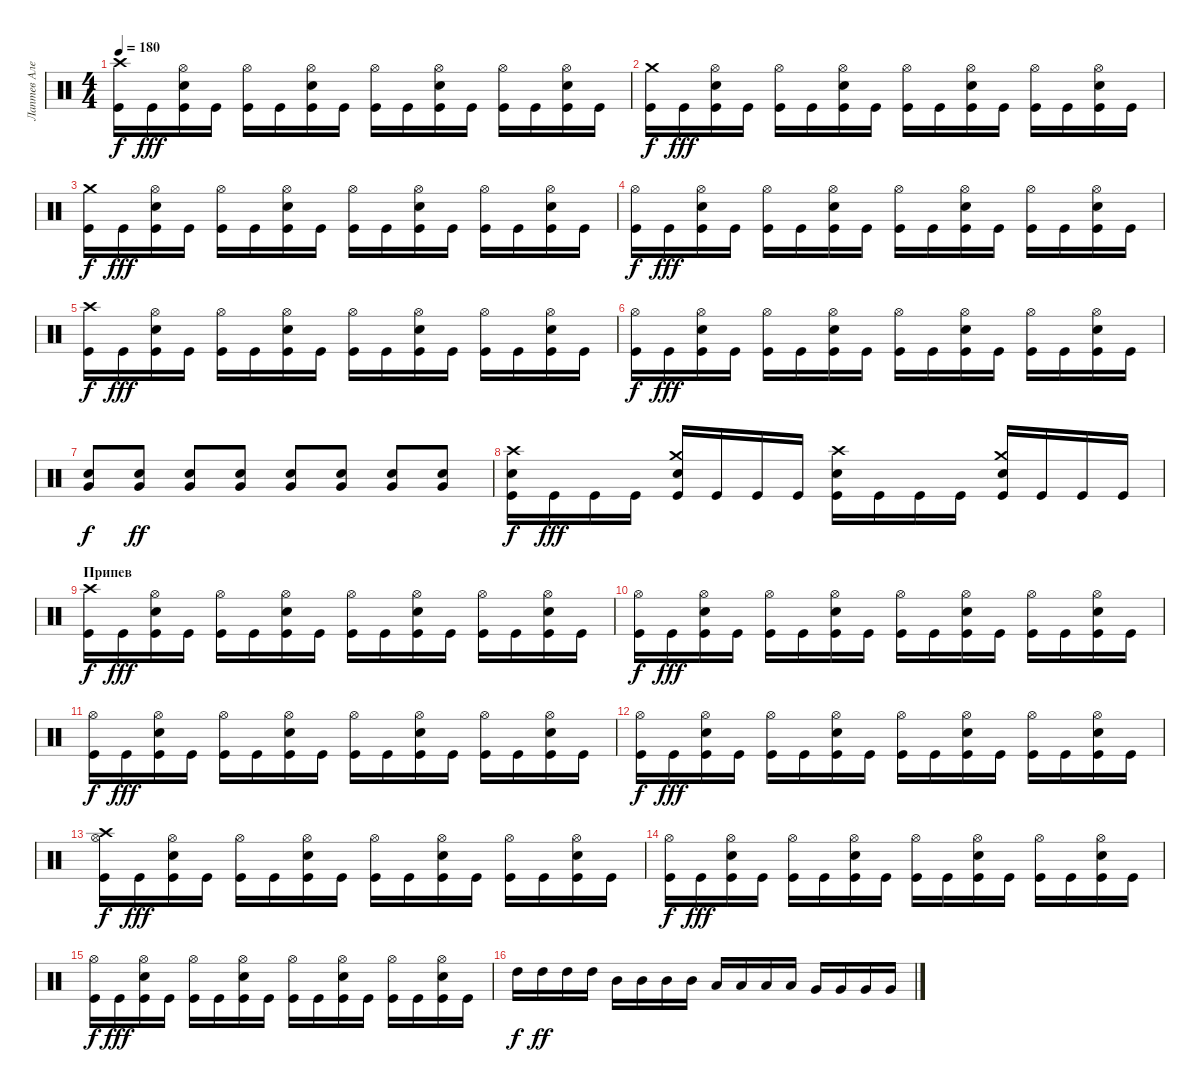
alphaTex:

\track ("Лаптев Алексей" "Лаптев Але") {instrument percussion}
\staff {score}
\articulation defaults
\ts (4 4)
\tempo 180
\clef neutral
\ks c
("Crash high (hit)" "Kick (hit)").16{dy f} "Kick (hit)".16{dy fff} ("Hi-Hat (open)" "Snare (hit) 2" "Kick (hit)").16 "Kick (hit)".16 ("Hi-Hat (open)" "Kick (hit)").16 "Kick (hit)".16 ("Snare (hit) 2" "Hi-Hat (open)" "Kick (hit)").16 "Kick (hit)".16 ("Hi-Hat (open)" "Kick (hit)").16 "Kick (hit)".16 ("Hi-Hat (open)" "Snare (hit) 2" "Kick (hit)").16 "Kick (hit)".16 ("Hi-Hat (open)" "Kick (hit)").16 "Kick (hit)".16 ("Hi-Hat (open)" "Snare (hit) 2" "Kick (hit)").16 "Kick (hit)".16 |
("Crash medium (hit)" "Kick (hit)").16{dy f} "Kick (hit)".16{dy fff} ("Hi-Hat (open)" "Snare (hit) 2" "Kick (hit)").16 "Kick (hit)".16 ("Hi-Hat (open)" "Kick (hit)").16 "Kick (hit)".16 ("Snare (hit) 2" "Hi-Hat (open)" "Kick (hit)").16 "Kick (hit)".16 ("Hi-Hat (open)" "Kick (hit)").16 "Kick (hit)".16 ("Hi-Hat (open)" "Snare (hit) 2" "Kick (hit)").16 "Kick (hit)".16 ("Hi-Hat (open)" "Kick (hit)").16 "Kick (hit)".16 ("Hi-Hat (open)" "Snare (hit) 2" "Kick (hit)").16 "Kick (hit)".16 |
("Crash medium (hit)" "Kick (hit)").16{dy f} "Kick (hit)".16{dy fff} ("Hi-Hat (open)" "Snare (hit) 2" "Kick (hit)").16 "Kick (hit)".16 ("Hi-Hat (open)" "Kick (hit)").16 "Kick (hit)".16 ("Snare (hit) 2" "Hi-Hat (open)" "Kick (hit)").16 "Kick (hit)".16 ("Hi-Hat (open)" "Kick (hit)").16 "Kick (hit)".16 ("Hi-Hat (open)" "Snare (hit) 2" "Kick (hit)").16 "Kick (hit)".16 ("Hi-Hat (open)" "Kick (hit)").16 "Kick (hit)".16 ("Hi-Hat (open)" "Snare (hit) 2" "Kick (hit)").16 "Kick (hit)".16 |
("Hi-Hat (open)" "Kick (hit)").16{dy f} "Kick (hit)".16{dy fff} ("Hi-Hat (open)" "Snare (hit) 2" "Kick (hit)").16 "Kick (hit)".16 ("Hi-Hat (open)" "Kick (hit)").16 "Kick (hit)".16 ("Snare (hit) 2" "Hi-Hat (open)" "Kick (hit)").16 "Kick (hit)".16 ("Hi-Hat (open)" "Kick (hit)").16 "Kick (hit)".16 ("Hi-Hat (open)" "Snare (hit) 2" "Kick (hit)").16 "Kick (hit)".16 ("Hi-Hat (open)" "Kick (hit)").16 "Kick (hit)".16 ("Hi-Hat (open)" "Snare (hit) 2" "Kick (hit)").16 "Kick (hit)".16 |
("Crash high (hit)" "Kick (hit)").16{dy f} "Kick (hit)".16{dy fff} ("Hi-Hat (open)" "Snare (hit) 2" "Kick (hit)").16 "Kick (hit)".16 ("Hi-Hat (open)" "Kick (hit)").16 "Kick (hit)".16 ("Snare (hit) 2" "Hi-Hat (open)" "Kick (hit)").16 "Kick (hit)".16 ("Hi-Hat (open)" "Kick (hit)").16 "Kick (hit)".16 ("Hi-Hat (open)" "Snare (hit) 2" "Kick (hit)").16 "Kick (hit)".16 ("Hi-Hat (open)" "Kick (hit)").16 "Kick (hit)".16 ("Hi-Hat (open)" "Snare (hit) 2" "Kick (hit)").16 "Kick (hit)".16 |
("Hi-Hat (open)" "Kick (hit)").16{dy f} "Kick (hit)".16{dy fff} ("Hi-Hat (open)" "Snare (hit) 2" "Kick (hit)").16 "Kick (hit)".16 ("Hi-Hat (open)" "Kick (hit)").16 "Kick (hit)".16 ("Snare (hit) 2" "Hi-Hat (open)" "Kick (hit)").16 "Kick (hit)".16 ("Hi-Hat (open)" "Kick (hit)").16 "Kick (hit)".16 ("Hi-Hat (open)" "Snare (hit) 2" "Kick (hit)").16 "Kick (hit)".16 ("Hi-Hat (open)" "Kick (hit)").16 "Kick (hit)".16 ("Hi-Hat (open)" "Snare (hit) 2" "Kick (hit)").16 "Kick (hit)".16 |
("Electric Snare (hit)" "Very Low Tom (hit)").8{dy f} ("Electric Snare (hit)" "Very Low Tom (hit)").8{dy ff} ("Electric Snare (hit)" "Very Low Tom (hit)").8 ("Electric Snare (hit)" "Very Low Tom (hit)").8 ("Electric Snare (hit)" "Very Low Tom (hit)").8 ("Electric Snare (hit)" "Very Low Tom (hit)").8 ("Electric Snare (hit)" "Very Low Tom (hit)").8 ("Electric Snare (hit)" "Very Low Tom (hit)").8 |
("Electric Snare (hit)" "Crash high (hit)" "Kick (hit)").16{dy f} "Kick (hit)".16{dy fff} "Kick (hit)".16 "Kick (hit)".16 ("Electric Snare (hit)" "Crash medium (hit)" "Kick (hit)").16 "Kick (hit)".16 "Kick (hit)".16 "Kick (hit)".16 ("Electric Snare (hit)" "Crash high (hit)" "Kick (hit)").16 "Kick (hit)".16 "Kick (hit)".16 "Kick (hit)".16 ("Electric Snare (hit)" "Crash medium (hit)" "Kick (hit)").16 "Kick (hit)".16 "Kick (hit)".16 "Kick (hit)".16 |
\section ("" "Припев")
("Crash high (hit)" "Kick (hit)").16{dy f} "Kick (hit)".16{dy fff} ("Hi-Hat (open)" "Snare (hit) 2" "Kick (hit)").16 "Kick (hit)".16 ("Hi-Hat (open)" "Kick (hit)").16 "Kick (hit)".16 ("Snare (hit) 2" "Hi-Hat (open)" "Kick (hit)").16 "Kick (hit)".16 ("Hi-Hat (open)" "Kick (hit)").16 "Kick (hit)".16 ("Hi-Hat (open)" "Snare (hit) 2" "Kick (hit)").16 "Kick (hit)".16 ("Hi-Hat (open)" "Kick (hit)").16 "Kick (hit)".16 ("Hi-Hat (open)" "Snare (hit) 2" "Kick (hit)").16 "Kick (hit)".16 |
("Hi-Hat (open)" "Kick (hit)").16{dy f} "Kick (hit)".16{dy fff} ("Hi-Hat (open)" "Snare (hit) 2" "Kick (hit)").16 "Kick (hit)".16 ("Hi-Hat (open)" "Kick (hit)").16 "Kick (hit)".16 ("Snare (hit) 2" "Hi-Hat (open)" "Kick (hit)").16 "Kick (hit)".16 ("Hi-Hat (open)" "Kick (hit)").16 "Kick (hit)".16 ("Hi-Hat (open)" "Snare (hit) 2" "Kick (hit)").16 "Kick (hit)".16 ("Hi-Hat (open)" "Kick (hit)").16 "Kick (hit)".16 ("Hi-Hat (open)" "Snare (hit) 2" "Kick (hit)").16 "Kick (hit)".16 |
("Hi-Hat (open)" "Kick (hit)").16{dy f} "Kick (hit)".16{dy fff} ("Hi-Hat (open)" "Snare (hit) 2" "Kick (hit)").16 "Kick (hit)".16 ("Hi-Hat (open)" "Kick (hit)").16 "Kick (hit)".16 ("Snare (hit) 2" "Hi-Hat (open)" "Kick (hit)").16 "Kick (hit)".16 ("Hi-Hat (open)" "Kick (hit)").16 "Kick (hit)".16 ("Hi-Hat (open)" "Snare (hit) 2" "Kick (hit)").16 "Kick (hit)".16 ("Hi-Hat (open)" "Kick (hit)").16 "Kick (hit)".16 ("Hi-Hat (open)" "Snare (hit) 2" "Kick (hit)").16 "Kick (hit)".16 |
("Hi-Hat (open)" "Kick (hit)").16{dy f} "Kick (hit)".16{dy fff} ("Hi-Hat (open)" "Snare (hit) 2" "Kick (hit)").16 "Kick (hit)".16 ("Hi-Hat (open)" "Kick (hit)").16 "Kick (hit)".16 ("Snare (hit) 2" "Hi-Hat (open)" "Kick (hit)").16 "Kick (hit)".16 ("Hi-Hat (open)" "Kick (hit)").16 "Kick (hit)".16 ("Hi-Hat (open)" "Snare (hit) 2" "Kick (hit)").16 "Kick (hit)".16 ("Hi-Hat (open)" "Kick (hit)").16 "Kick (hit)".16 ("Hi-Hat (open)" "Snare (hit) 2" "Kick (hit)").16 "Kick (hit)".16 |
("Crash high (hit)" "Kick (hit)" "Hi-Hat (open)").16{dy f} "Kick (hit)".16{dy fff} ("Hi-Hat (open)" "Snare (hit) 2" "Kick (hit)").16 "Kick (hit)".16 ("Hi-Hat (open)" "Kick (hit)").16 "Kick (hit)".16 ("Snare (hit) 2" "Hi-Hat (open)" "Kick (hit)").16 "Kick (hit)".16 ("Hi-Hat (open)" "Kick (hit)").16 "Kick (hit)".16 ("Hi-Hat (open)" "Snare (hit) 2" "Kick (hit)").16 "Kick (hit)".16 ("Hi-Hat (open)" "Kick (hit)").16 "Kick (hit)".16 ("Hi-Hat (open)" "Snare (hit) 2" "Kick (hit)").16 "Kick (hit)".16 |
("Hi-Hat (open)" "Kick (hit)").16{dy f} "Kick (hit)".16{dy fff} ("Hi-Hat (open)" "Snare (hit) 2" "Kick (hit)").16 "Kick (hit)".16 ("Hi-Hat (open)" "Kick (hit)").16 "Kick (hit)".16 ("Snare (hit) 2" "Hi-Hat (open)" "Kick (hit)").16 "Kick (hit)".16 ("Hi-Hat (open)" "Kick (hit)").16 "Kick (hit)".16 ("Hi-Hat (open)" "Snare (hit) 2" "Kick (hit)").16 "Kick (hit)".16 ("Hi-Hat (open)" "Kick (hit)").16 "Kick (hit)".16 ("Hi-Hat (open)" "Snare (hit) 2" "Kick (hit)").16 "Kick (hit)".16 |
("Hi-Hat (open)" "Kick (hit)").16{dy f} "Kick (hit)".16{dy fff} ("Hi-Hat (open)" "Snare (hit) 2" "Kick (hit)").16 "Kick (hit)".16 ("Hi-Hat (open)" "Kick (hit)").16 "Kick (hit)".16 ("Snare (hit) 2" "Hi-Hat (open)" "Kick (hit)").16 "Kick (hit)".16 ("Hi-Hat (open)" "Kick (hit)").16 "Kick (hit)".16 ("Hi-Hat (open)" "Snare (hit) 2" "Kick (hit)").16 "Kick (hit)".16 ("Hi-Hat (open)" "Kick (hit)").16 "Kick (hit)".16 ("Hi-Hat (open)" "Snare (hit) 2" "Kick (hit)").16 "Kick (hit)".16 |
"High Tom (hit)".16{dy f} "High Tom (hit)".16{dy ff} "High Tom (hit)".16 "High Tom (hit)".16 "Mid Tom (hit)".16 "Mid Tom (hit)".16 "Mid Tom (hit)".16 "Mid Tom (hit)".16 "Low Tom (hit)".16 "Low Tom (hit)".16 "Low Tom (hit)".16 "Low Tom (hit)".16 "Very Low Tom (hit)".16 "Very Low Tom (hit)".16 "Very Low Tom (hit)".16 "Very Low Tom (hit)".16
